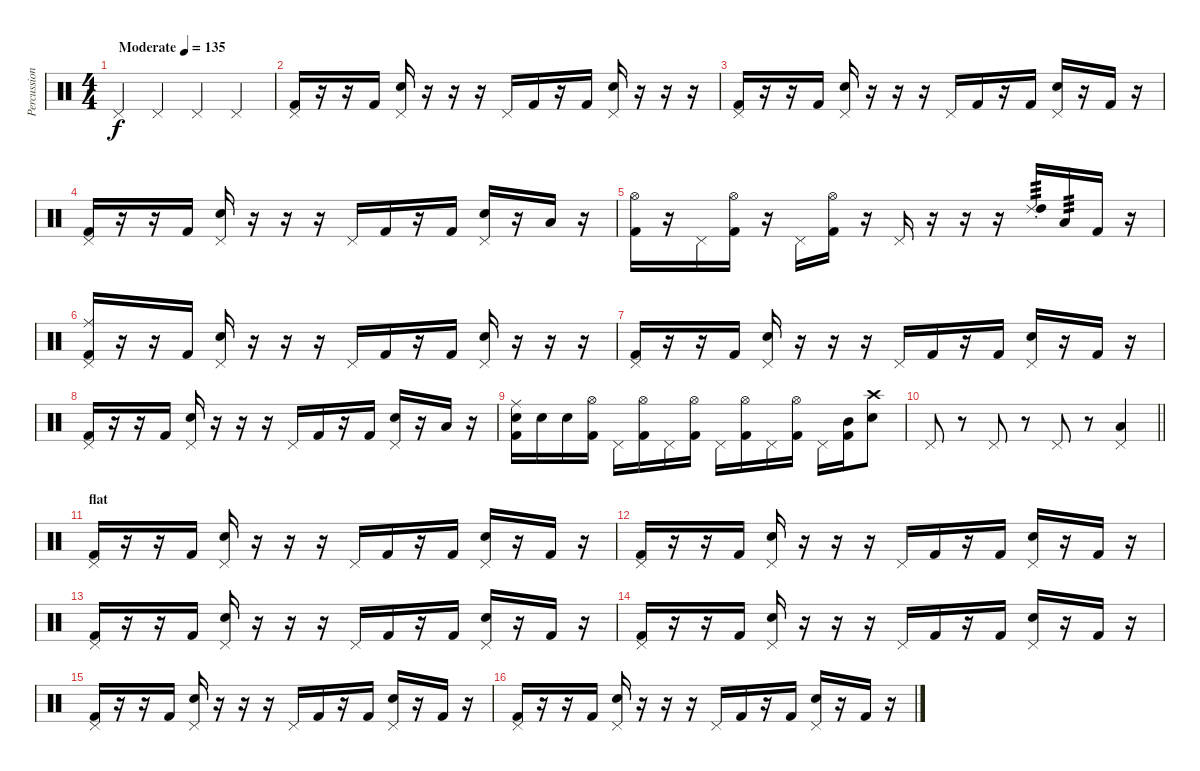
\track ("Percussion" "Percussion") {instrument percussion}
\staff {score}
\articulation defaults
\ts (4 4)
\tempo (135 "Moderate")
\clef neutral
\ks c "Pedal Hi-Hat (hit)".4{dy f} "Pedal Hi-Hat (hit)".4 "Pedal Hi-Hat (hit)".4 "Pedal Hi-Hat (hit)".4
|
("Pedal Hi-Hat (hit)" "Kick (hit) 2").16 r.16 r.16 "Kick (hit) 2".16 ("Electric Snare (hit)" "Pedal Hi-Hat (hit)").16 r.16 r.16 r.16 "Pedal Hi-Hat (hit)".16 "Kick (hit) 2".16 r.16 "Kick (hit) 2".16 ("Electric Snare (hit)" "Pedal Hi-Hat (hit)").16 r.16 r.16 r.16 |
("Pedal Hi-Hat (hit)" "Kick (hit) 2").16 r.16 r.16 "Kick (hit) 2".16 ("Electric Snare (hit)" "Pedal Hi-Hat (hit)").16 r.16 r.16 r.16 "Pedal Hi-Hat (hit)".16 "Kick (hit) 2".16 r.16 "Kick (hit) 2".16 ("Electric Snare (hit)" "Pedal Hi-Hat (hit)").16 r.16 "Kick (hit) 2".16 r.16 |
("Pedal Hi-Hat (hit)" "Kick (hit) 2").16 r.16 r.16 "Kick (hit) 2".16 ("Electric Snare (hit)" "Pedal Hi-Hat (hit)").16 r.16 r.16 r.16 "Pedal Hi-Hat (hit)".16 "Kick (hit) 2".16 r.16 "Kick (hit) 2".16 ("Electric Snare (hit)" "Pedal Hi-Hat (hit)").16 r.16 "Low Tom (hit)".16 r.16 |
("Hi-Hat (open)" "Kick (hit) 2").16 r.16 "Pedal Hi-Hat (hit)".16 ("Hi-Hat (open)" "Kick (hit) 2").16 r.16 "Pedal Hi-Hat (hit)".16 ("Hi-Hat (open)" "Kick (hit) 2").16 r.16 "Pedal Hi-Hat (hit)".16 r.16 r.16 r.16 ("Ride (choke) 2" "High Tom (hit)").16{tp 3} "Low Tom (hit)".16{tp 3} "Kick (hit) 2".16 r.16 |
("Ride (middle)" "Pedal Hi-Hat (hit)" "Kick (hit) 2").16 r.16 r.16 "Kick (hit) 2".16 ("Electric Snare (hit)" "Pedal Hi-Hat (hit)").16 r.16 r.16 r.16 "Pedal Hi-Hat (hit)".16 "Kick (hit) 2".16 r.16 "Kick (hit) 2".16 ("Electric Snare (hit)" "Pedal Hi-Hat (hit)").16 r.16 r.16 r.16 |
("Pedal Hi-Hat (hit)" "Kick (hit) 2").16 r.16 r.16 "Kick (hit) 2".16 ("Electric Snare (hit)" "Pedal Hi-Hat (hit)").16 r.16 r.16 r.16 "Pedal Hi-Hat (hit)".16 "Kick (hit) 2".16 r.16 "Kick (hit) 2".16 ("Electric Snare (hit)" "Pedal Hi-Hat (hit)").16 r.16 "Kick (hit) 2".16 r.16 |
("Pedal Hi-Hat (hit)" "Kick (hit) 2").16 r.16 r.16 "Kick (hit) 2".16 ("Electric Snare (hit)" "Pedal Hi-Hat (hit)").16 r.16 r.16 r.16 "Pedal Hi-Hat (hit)".16 "Kick (hit) 2".16 r.16 "Kick (hit) 2".16 ("Electric Snare (hit)" "Pedal Hi-Hat (hit)").16 r.16 "Low Tom (hit)".16 r.16 |
("Ride (middle)" "Electric Snare (hit)" "Kick (hit) 2").16 "Electric Snare (hit)".16 "Electric Snare (hit)".16 ("Hi-Hat (open)" "Kick (hit) 2").16 "Pedal Hi-Hat (hit)".16 ("Hi-Hat (open)" "Kick (hit) 2").16 "Pedal Hi-Hat (hit)".16 ("Hi-Hat (open)" "Kick (hit) 2").16 "Pedal Hi-Hat (hit)".16 ("Hi-Hat (open)" "Kick (hit) 2").16 "Pedal Hi-Hat (hit)".16 ("Hi-Hat (open)" "Kick (hit) 2").16 "Pedal Hi-Hat (hit)".16 ("Mid Tom (hit)" "Kick (hit) 2").16 ("Crash high (hit)" "Electric Snare (hit)").8 |
\barLineRight lightlight "Pedal Hi-Hat (hit)".8
r.8 "Pedal Hi-Hat (hit)".8 r.8 "Pedal Hi-Hat (hit)".8 r.8 ("Low Tom (hit)" "Pedal Hi-Hat (hit)").4 |
\section ("" "flat")
("Pedal Hi-Hat (hit)" "Kick (hit) 2").16 r.16 r.16 "Kick (hit) 2".16 ("Electric Snare (hit)" "Pedal Hi-Hat (hit)").16 r.16 r.16 r.16 "Pedal Hi-Hat (hit)".16 "Kick (hit) 2".16 r.16 "Kick (hit) 2".16 ("Electric Snare (hit)" "Pedal Hi-Hat (hit)").16 r.16 "Kick (hit) 2".16 r.16 |
("Pedal Hi-Hat (hit)" "Kick (hit) 2").16 r.16 r.16 "Kick (hit) 2".16 ("Electric Snare (hit)" "Pedal Hi-Hat (hit)").16 r.16 r.16 r.16 "Pedal Hi-Hat (hit)".16 "Kick (hit) 2".16 r.16 "Kick (hit) 2".16 ("Electric Snare (hit)" "Pedal Hi-Hat (hit)").16 r.16 "Kick (hit) 2".16 r.16 |
("Pedal Hi-Hat (hit)" "Kick (hit) 2").16 r.16 r.16 "Kick (hit) 2".16 ("Electric Snare (hit)" "Pedal Hi-Hat (hit)").16 r.16 r.16 r.16 "Pedal Hi-Hat (hit)".16 "Kick (hit) 2".16 r.16 "Kick (hit) 2".16 ("Electric Snare (hit)" "Pedal Hi-Hat (hit)").16 r.16 "Kick (hit) 2".16 r.16 |
("Pedal Hi-Hat (hit)" "Kick (hit) 2").16 r.16 r.16 "Kick (hit) 2".16 ("Electric Snare (hit)" "Pedal Hi-Hat (hit)").16 r.16 r.16 r.16 "Pedal Hi-Hat (hit)".16 "Kick (hit) 2".16 r.16 "Kick (hit) 2".16 ("Electric Snare (hit)" "Pedal Hi-Hat (hit)").16 r.16 "Kick (hit) 2".16 r.16 |
("Pedal Hi-Hat (hit)" "Kick (hit) 2").16 r.16 r.16 "Kick (hit) 2".16 ("Electric Snare (hit)" "Pedal Hi-Hat (hit)").16 r.16 r.16 r.16 "Pedal Hi-Hat (hit)".16 "Kick (hit) 2".16 r.16 "Kick (hit) 2".16 ("Electric Snare (hit)" "Pedal Hi-Hat (hit)").16 r.16 "Kick (hit) 2".16 r.16 |
("Pedal Hi-Hat (hit)" "Kick (hit) 2").16 r.16 r.16 "Kick (hit) 2".16 ("Electric Snare (hit)" "Pedal Hi-Hat (hit)").16 r.16 r.16 r.16 "Pedal Hi-Hat (hit)".16 "Kick (hit) 2".16 r.16 "Kick (hit) 2".16 ("Electric Snare (hit)" "Pedal Hi-Hat (hit)").16 r.16 "Kick (hit) 2".16 r.16
